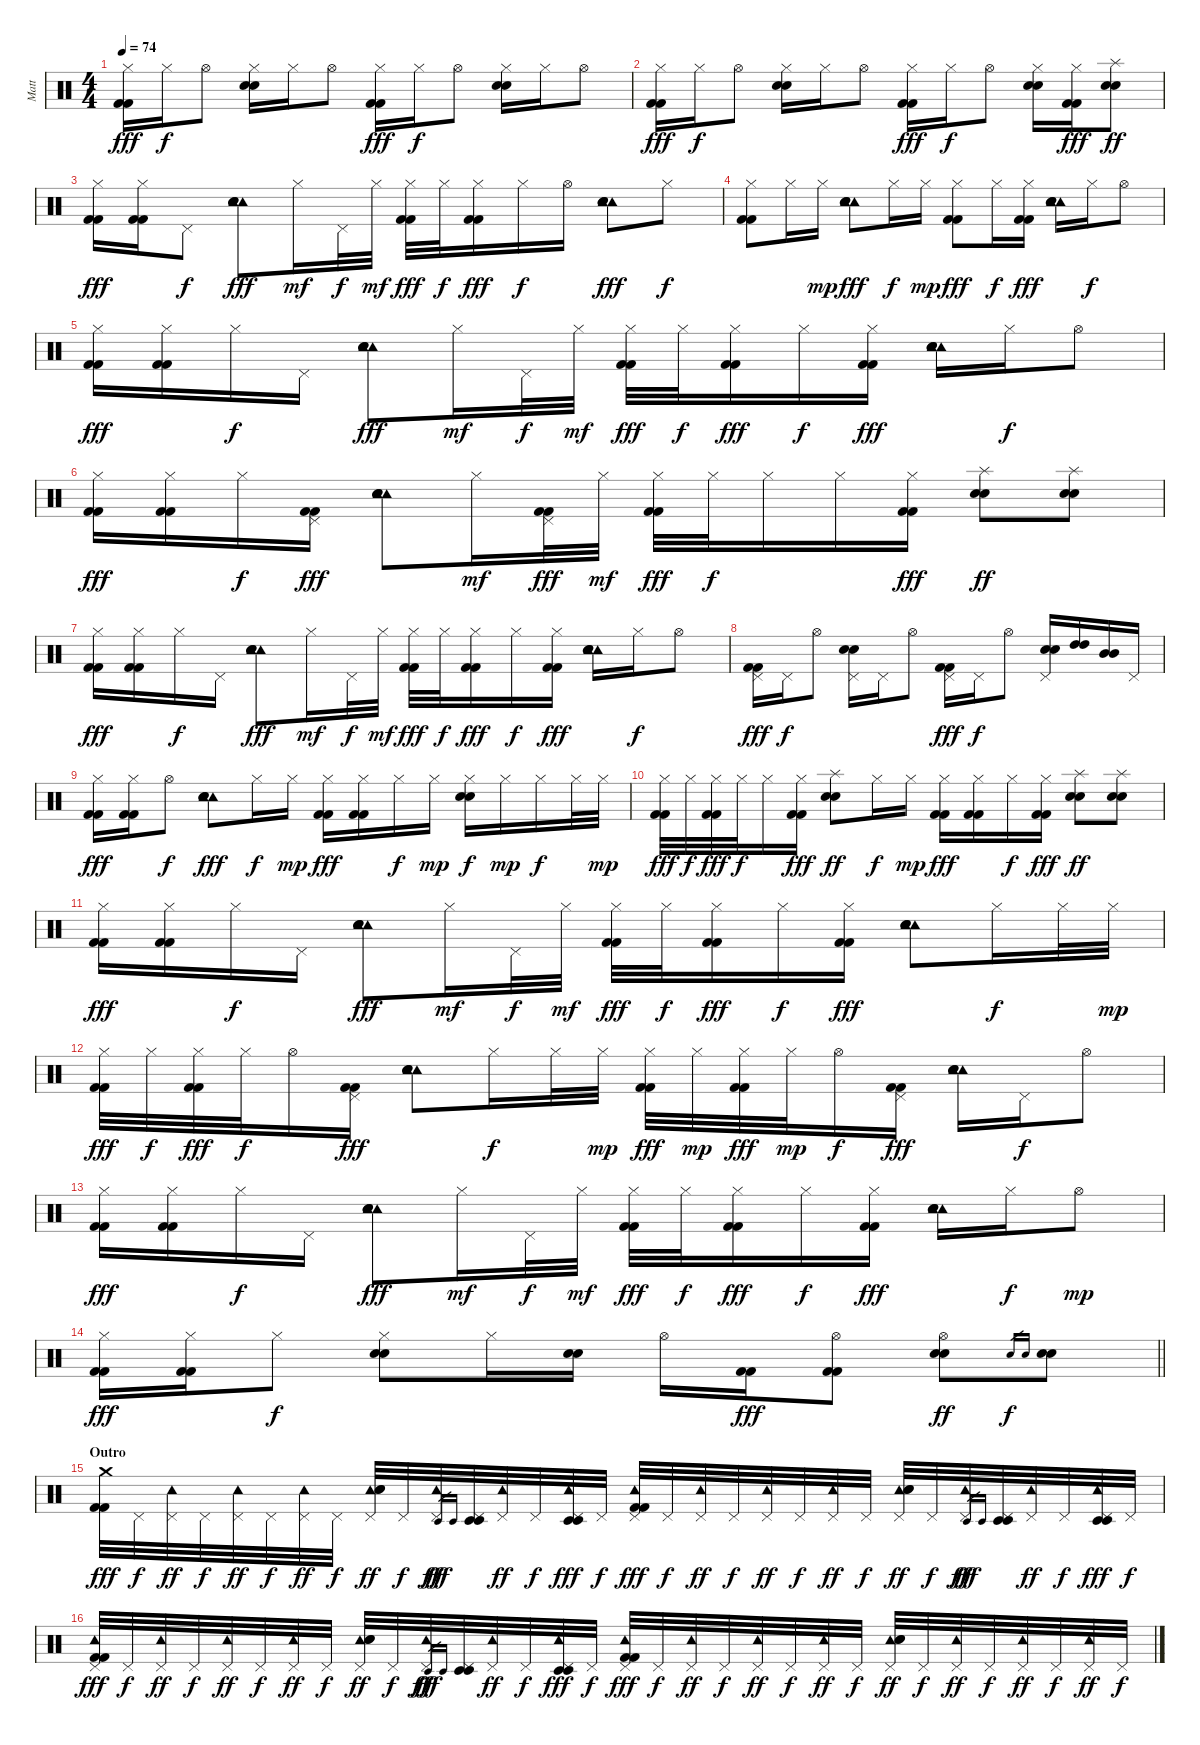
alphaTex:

\track ("Matt" "Matt") {instrument percussion}
\staff {score}
\articulation defaults
\ts (4 4)
\tempo 74
\clef neutral
\ks c
("Hi-Hat (closed)" "Kick (hit) 2" "Kick (hit) 2").16{dy fff} "Hi-Hat (closed)".16{dy f} "Hi-Hat (open)".8 ("Hi-Hat (closed)" "Electric Snare (hit)" "Electric Snare (hit)").16 "Hi-Hat (closed)".16 "Hi-Hat (open)".8 ("Hi-Hat (closed)" "Kick (hit) 2" "Kick (hit) 2").16{dy fff} "Hi-Hat (closed)".16{dy f} "Hi-Hat (open)".8 ("Hi-Hat (closed)" "Electric Snare (hit)" "Electric Snare (hit)").16 "Hi-Hat (closed)".16 "Hi-Hat (open)".8 |
("Hi-Hat (closed)" "Kick (hit) 2" "Kick (hit) 2").16{dy fff} "Hi-Hat (closed)".16{dy f} "Hi-Hat (open)".8 ("Hi-Hat (closed)" "Electric Snare (hit)" "Electric Snare (hit)").16 "Hi-Hat (closed)".16 "Hi-Hat (open)".8 ("Hi-Hat (closed)" "Kick (hit) 2" "Kick (hit) 2").16{dy fff} "Hi-Hat (closed)".16{dy f} "Hi-Hat (open)".8 ("Hi-Hat (closed)" "Electric Snare (hit)" "Electric Snare (hit)").16 ("Hi-Hat (closed)" "Kick (hit) 2" "Kick (hit) 2").16{dy fff} ("Splash (hit)" "Electric Snare (hit)" "Electric Snare (hit)").8{dy ff} |
("Hi-Hat (closed)" "Kick (hit) 2" "Kick (hit) 2").16{dy fff} ("Hi-Hat (closed)" "Kick (hit) 2" "Kick (hit) 2").16 "Pedal Hi-Hat (hit)".8{dy f} ("Tambourine (hit)" "Tambourine (hit)" "Electric Snare (hit)" "Electric Snare (hit)").8{dy fff} "Hi-Hat (closed)".16{dy mf} "Pedal Hi-Hat (hit)".32{dy f} "Hi-Hat (closed)".32{dy mf} ("Hi-Hat (closed)" "Kick (hit) 2" "Kick (hit) 2").32{dy fff} "Hi-Hat (closed)".32{dy f} ("Hi-Hat (closed)" "Kick (hit) 2" "Kick (hit) 2").16{dy fff} "Hi-Hat (closed)".16{dy f} "Hi-Hat (open)".16 ("Tambourine (hit)" "Tambourine (hit)" "Electric Snare (hit)" "Electric Snare (hit)").8{dy fff} "Hi-Hat (closed)".8{dy f} |
("Hi-Hat (closed)" "Kick (hit) 2" "Kick (hit) 2").8 "Hi-Hat (closed)".16 "Hi-Hat (closed)".16{dy mp} ("Tambourine (hit)" "Tambourine (hit)" "Electric Snare (hit)" "Electric Snare (hit)").8{dy fff} "Hi-Hat (closed)".16{dy f} "Hi-Hat (closed)".16{dy mp} ("Hi-Hat (closed)" "Kick (hit) 2" "Kick (hit) 2").8{dy fff} "Hi-Hat (closed)".16{dy f} ("Hi-Hat (closed)" "Kick (hit) 2" "Kick (hit) 2").16{dy fff} ("Tambourine (hit)" "Tambourine (hit)" "Electric Snare (hit)" "Electric Snare (hit)").16 "Hi-Hat (closed)".16{dy f} "Hi-Hat (open)".8 |
("Hi-Hat (closed)" "Kick (hit) 2" "Kick (hit) 2").16{dy fff} ("Hi-Hat (closed)" "Kick (hit) 2" "Kick (hit) 2").16 "Hi-Hat (closed)".16{dy f} "Pedal Hi-Hat (hit)".16 ("Tambourine (hit)" "Tambourine (hit)" "Electric Snare (hit)" "Electric Snare (hit)").8{dy fff} "Hi-Hat (closed)".16{dy mf} "Pedal Hi-Hat (hit)".32{dy f} "Hi-Hat (closed)".32{dy mf} ("Hi-Hat (closed)" "Kick (hit) 2" "Kick (hit) 2").32{dy fff} "Hi-Hat (closed)".32{dy f} ("Hi-Hat (closed)" "Kick (hit) 2" "Kick (hit) 2").16{dy fff} "Hi-Hat (closed)".16{dy f} ("Hi-Hat (closed)" "Kick (hit) 2" "Kick (hit) 2").16{dy fff} ("Tambourine (hit)" "Tambourine (hit)" "Electric Snare (hit)" "Electric Snare (hit)").16 "Hi-Hat (closed)".16{dy f} "Hi-Hat (open)".8 |
("Hi-Hat (closed)" "Kick (hit) 2" "Kick (hit) 2").16{dy fff} ("Hi-Hat (closed)" "Kick (hit) 2" "Kick (hit) 2").16 "Hi-Hat (closed)".16{dy f} ("Pedal Hi-Hat (hit)" "Kick (hit) 2" "Kick (hit) 2").16{dy fff} ("Tambourine (hit)" "Tambourine (hit)" "Electric Snare (hit)" "Electric Snare (hit)").8 "Hi-Hat (closed)".16{dy mf} ("Pedal Hi-Hat (hit)" "Kick (hit) 2" "Kick (hit) 2").32{dy fff} "Hi-Hat (closed)".32{dy mf} ("Hi-Hat (closed)" "Kick (hit) 2" "Kick (hit) 2").32{dy fff} "Hi-Hat (closed)".32{dy f} "Hi-Hat (closed)".16 "Hi-Hat (closed)".16 ("Hi-Hat (closed)" "Kick (hit) 2" "Kick (hit) 2").16{dy fff} ("Splash (hit)" "Electric Snare (hit)" "Electric Snare (hit)").8{dy ff} ("Splash (hit)" "Electric Snare (hit)" "Electric Snare (hit)").8 |
("Hi-Hat (closed)" "Kick (hit) 2" "Kick (hit) 2").16{dy fff} ("Hi-Hat (closed)" "Kick (hit) 2" "Kick (hit) 2").16 "Hi-Hat (closed)".16{dy f} "Pedal Hi-Hat (hit)".16 ("Tambourine (hit)" "Tambourine (hit)" "Electric Snare (hit)" "Electric Snare (hit)").8{dy fff} "Hi-Hat (closed)".16{dy mf} "Pedal Hi-Hat (hit)".32{dy f} "Hi-Hat (closed)".32{dy mf} ("Hi-Hat (closed)" "Kick (hit) 2" "Kick (hit) 2").32{dy fff} "Hi-Hat (closed)".32{dy f} ("Hi-Hat (closed)" "Kick (hit) 2" "Kick (hit) 2").16{dy fff} "Hi-Hat (closed)".16{dy f} ("Hi-Hat (closed)" "Kick (hit) 2" "Kick (hit) 2").16{dy fff} ("Tambourine (hit)" "Tambourine (hit)" "Electric Snare (hit)" "Electric Snare (hit)").16 "Hi-Hat (closed)".16{dy f} "Hi-Hat (open)".8 |
("Pedal Hi-Hat (hit)" "Kick (hit) 2" "Kick (hit) 2").16{dy fff} "Pedal Hi-Hat (hit)".16{dy f} "Hi-Hat (open)".8 ("Pedal Hi-Hat (hit)" "Electric Snare (hit)" "Electric Snare (hit)").16 "Pedal Hi-Hat (hit)".16 "Hi-Hat (open)".8 ("Pedal Hi-Hat (hit)" "Kick (hit) 2" "Kick (hit) 2").16{dy fff} "Pedal Hi-Hat (hit)".16{dy f} "Hi-Hat (open)".8 ("Pedal Hi-Hat (hit)" "Electric Snare (hit)" "Electric Snare (hit)").16 ("High Tom (hit)" "High Tom (hit)").16 ("Mid Tom (hit)" "Mid Tom (hit)").16 "Pedal Hi-Hat (hit)".16 |
("Hi-Hat (closed)" "Kick (hit) 2" "Kick (hit) 2").16{dy fff} ("Hi-Hat (closed)" "Kick (hit) 2" "Kick (hit) 2").16 "Hi-Hat (open)".8{dy f} ("Tambourine (hit)" "Tambourine (hit)" "Electric Snare (hit)" "Electric Snare (hit)").8{dy fff} "Hi-Hat (closed)".16{dy f} "Hi-Hat (closed)".16{dy mp} ("Hi-Hat (closed)" "Kick (hit) 2" "Kick (hit) 2").16{dy fff} ("Hi-Hat (closed)" "Kick (hit) 2" "Kick (hit) 2").16 "Hi-Hat (closed)".16{dy f} "Hi-Hat (closed)".16{dy mp} ("Hi-Hat (closed)" "Electric Snare (hit)" "Electric Snare (hit)").16{dy f} "Hi-Hat (closed)".16{dy mp} "Hi-Hat (closed)".16{dy f} "Hi-Hat (closed)".32 "Hi-Hat (closed)".32{dy mp} |
("Hi-Hat (closed)" "Kick (hit) 2" "Kick (hit) 2").32{dy fff} "Hi-Hat (closed)".32{dy f} ("Hi-Hat (closed)" "Kick (hit) 2" "Kick (hit) 2").32{dy fff} "Hi-Hat (closed)".32{dy f} "Hi-Hat (closed)".16 ("Hi-Hat (closed)" "Kick (hit) 2" "Kick (hit) 2").16{dy fff} ("Splash (hit)" "Electric Snare (hit)" "Electric Snare (hit)").8{dy ff} "Hi-Hat (closed)".16{dy f} "Hi-Hat (closed)".16{dy mp} ("Hi-Hat (closed)" "Kick (hit) 2" "Kick (hit) 2").16{dy fff} ("Hi-Hat (closed)" "Kick (hit) 2" "Kick (hit) 2").16 "Hi-Hat (closed)".16{dy f} ("Hi-Hat (closed)" "Kick (hit) 2" "Kick (hit) 2").16{dy fff} ("Splash (hit)" "Electric Snare (hit)" "Electric Snare (hit)").8{dy ff} ("Splash (hit)" "Electric Snare (hit)" "Electric Snare (hit)").8 |
("Hi-Hat (closed)" "Kick (hit) 2" "Kick (hit) 2").16{dy fff} ("Hi-Hat (closed)" "Kick (hit) 2" "Kick (hit) 2").16 "Hi-Hat (closed)".16{dy f} "Pedal Hi-Hat (hit)".16 ("Tambourine (hit)" "Tambourine (hit)" "Electric Snare (hit)" "Electric Snare (hit)").8{dy fff} "Hi-Hat (closed)".16{dy mf} "Pedal Hi-Hat (hit)".32{dy f} "Hi-Hat (closed)".32{dy mf} ("Hi-Hat (closed)" "Kick (hit) 2" "Kick (hit) 2").32{dy fff} "Hi-Hat (closed)".32{dy f} ("Hi-Hat (closed)" "Kick (hit) 2" "Kick (hit) 2").16{dy fff} "Hi-Hat (closed)".16{dy f} ("Hi-Hat (closed)" "Kick (hit) 2" "Kick (hit) 2").16{dy fff} ("Tambourine (hit)" "Tambourine (hit)" "Electric Snare (hit)" "Electric Snare (hit)").8 "Hi-Hat (closed)".16{dy f} "Hi-Hat (closed)".32 "Hi-Hat (closed)".32{dy mp} |
("Hi-Hat (closed)" "Kick (hit) 2" "Kick (hit) 2").32{dy fff} "Hi-Hat (closed)".32{dy f} ("Hi-Hat (closed)" "Kick (hit) 2" "Kick (hit) 2").32{dy fff} "Hi-Hat (closed)".32{dy f} "Hi-Hat (open)".16 ("Pedal Hi-Hat (hit)" "Kick (hit) 2" "Kick (hit) 2").16{dy fff} ("Tambourine (hit)" "Tambourine (hit)" "Electric Snare (hit)" "Electric Snare (hit)").8 "Hi-Hat (closed)".16{dy f} "Hi-Hat (closed)".32 "Hi-Hat (closed)".32{dy mp} ("Hi-Hat (closed)" "Kick (hit) 2" "Kick (hit) 2").32{dy fff} "Hi-Hat (closed)".32{dy mp} ("Hi-Hat (closed)" "Kick (hit) 2" "Kick (hit) 2").32{dy fff} "Hi-Hat (closed)".32{dy mp} "Hi-Hat (open)".16{dy f} ("Pedal Hi-Hat (hit)" "Kick (hit) 2" "Kick (hit) 2").16{dy fff} ("Tambourine (hit)" "Tambourine (hit)" "Electric Snare (hit)" "Electric Snare (hit)").16 "Pedal Hi-Hat (hit)".16{dy f} "Hi-Hat (open)".8 |
("Hi-Hat (closed)" "Kick (hit) 2" "Kick (hit) 2").16{dy fff} ("Hi-Hat (closed)" "Kick (hit) 2" "Kick (hit) 2").16 "Hi-Hat (closed)".16{dy f} "Pedal Hi-Hat (hit)".16 ("Tambourine (hit)" "Tambourine (hit)" "Electric Snare (hit)" "Electric Snare (hit)").8{dy fff} "Hi-Hat (closed)".16{dy mf} "Pedal Hi-Hat (hit)".32{dy f} "Hi-Hat (closed)".32{dy mf} ("Hi-Hat (closed)" "Kick (hit) 2" "Kick (hit) 2").32{dy fff} "Hi-Hat (closed)".32{dy f} ("Hi-Hat (closed)" "Kick (hit) 2" "Kick (hit) 2").16{dy fff} "Hi-Hat (closed)".16{dy f} ("Hi-Hat (closed)" "Kick (hit) 2" "Kick (hit) 2").16{dy fff} ("Tambourine (hit)" "Tambourine (hit)" "Electric Snare (hit)" "Electric Snare (hit)").16 "Hi-Hat (closed)".16{dy f} "Hi-Hat (open)".8{dy mp} |
\barLineRight lightlight
("Hi-Hat (closed)" "Kick (hit) 2" "Kick (hit) 2").16{dy fff} ("Hi-Hat (closed)" "Kick (hit) 2" "Kick (hit) 2").16 "Hi-Hat (closed)".8{dy f} ("Hi-Hat (closed)" "Electric Snare (hit)" "Electric Snare (hit)").8 "Hi-Hat (closed)".16 ("Electric Snare (hit)" "Electric Snare (hit)").16 "Hi-Hat (open)".16 ("Kick (hit) 2" "Kick (hit) 2").16{dy fff} ("Hi-Hat (open)" "Kick (hit) 2" "Kick (hit) 2").8 ("Hi-Hat (open)" "Electric Snare (hit)" "Electric Snare (hit)").8{dy ff} "Electric Snare (hit)".16{gr dy f} "Electric Snare (hit)".16{gr} ("Electric Snare (hit)" "Electric Snare (hit)").8 |
\section ("" "Outro")
("Crash medium (hit)" "Kick (hit) 2" "Kick (hit) 2").32{dy fff} "Pedal Hi-Hat (hit)".32{dy f} ("Tambourine (hit)" "Pedal Hi-Hat (hit)").32{dy ff} "Pedal Hi-Hat (hit)".32{dy f} ("Tambourine (hit)" "Pedal Hi-Hat (hit)").32{dy ff} "Pedal Hi-Hat (hit)".32{dy f} ("Tambourine (hit)" "Pedal Hi-Hat (hit)").32{dy ff} "Pedal Hi-Hat (hit)".32{dy f} ("Tambourine (hit)" "Pedal Hi-Hat (hit)" "Electric Snare (hit)" "Electric Snare (hit)").32{dy ff} "Pedal Hi-Hat (hit)".32{dy f} ("Tambourine (hit)" "Pedal Hi-Hat (hit)").32{dy ff} "Timbale low (hit)".16{gr dy fff} "Timbale low (hit)".16{gr} ("Pedal Hi-Hat (hit)" "Timbale low (hit)" "Timbale low (hit)").32 ("Tambourine (hit)" "Pedal Hi-Hat (hit)").32{dy ff} "Pedal Hi-Hat (hit)".32{dy f} ("Tambourine (hit)" "Pedal Hi-Hat (hit)" "Timbale low (hit)" "Timbale low (hit)").32{dy fff} "Pedal Hi-Hat (hit)".32{dy f} ("Tambourine (hit)" "Pedal Hi-Hat (hit)" "Kick (hit) 2" "Kick (hit) 2").32{dy fff} "Pedal Hi-Hat (hit)".32{dy f} ("Tambourine (hit)" "Pedal Hi-Hat (hit)").32{dy ff} "Pedal Hi-Hat (hit)".32{dy f} ("Tambourine (hit)" "Pedal Hi-Hat (hit)").32{dy ff} "Pedal Hi-Hat (hit)".32{dy f} ("Tambourine (hit)" "Pedal Hi-Hat (hit)").32{dy ff} "Pedal Hi-Hat (hit)".32{dy f} ("Tambourine (hit)" "Pedal Hi-Hat (hit)" "Electric Snare (hit)" "Electric Snare (hit)").32{dy ff} "Pedal Hi-Hat (hit)".32{dy f} ("Tambourine (hit)" "Pedal Hi-Hat (hit)").32{dy ff} "Timbale low (hit)".16{gr dy fff} "Timbale low (hit)".16{gr} ("Pedal Hi-Hat (hit)" "Timbale low (hit)" "Timbale low (hit)").32 ("Tambourine (hit)" "Pedal Hi-Hat (hit)").32{dy ff} "Pedal Hi-Hat (hit)".32{dy f} ("Tambourine (hit)" "Pedal Hi-Hat (hit)" "Timbale low (hit)" "Timbale low (hit)").32{dy fff} "Pedal Hi-Hat (hit)".32{dy f} |
("Tambourine (hit)" "Pedal Hi-Hat (hit)" "Kick (hit) 2" "Kick (hit) 2").32{dy fff} "Pedal Hi-Hat (hit)".32{dy f} ("Tambourine (hit)" "Pedal Hi-Hat (hit)").32{dy ff} "Pedal Hi-Hat (hit)".32{dy f} ("Tambourine (hit)" "Pedal Hi-Hat (hit)").32{dy ff} "Pedal Hi-Hat (hit)".32{dy f} ("Tambourine (hit)" "Pedal Hi-Hat (hit)").32{dy ff} "Pedal Hi-Hat (hit)".32{dy f} ("Tambourine (hit)" "Pedal Hi-Hat (hit)" "Electric Snare (hit)" "Electric Snare (hit)").32{dy ff} "Pedal Hi-Hat (hit)".32{dy f} ("Tambourine (hit)" "Pedal Hi-Hat (hit)").32{dy ff} "Timbale low (hit)".16{gr dy fff} "Timbale low (hit)".16{gr} ("Pedal Hi-Hat (hit)" "Timbale low (hit)" "Timbale low (hit)").32 ("Tambourine (hit)" "Pedal Hi-Hat (hit)").32{dy ff} "Pedal Hi-Hat (hit)".32{dy f} ("Tambourine (hit)" "Pedal Hi-Hat (hit)" "Timbale low (hit)" "Timbale low (hit)").32{dy fff} "Pedal Hi-Hat (hit)".32{dy f} ("Tambourine (hit)" "Pedal Hi-Hat (hit)" "Kick (hit) 2" "Kick (hit) 2").32{dy fff} "Pedal Hi-Hat (hit)".32{dy f} ("Tambourine (hit)" "Pedal Hi-Hat (hit)").32{dy ff} "Pedal Hi-Hat (hit)".32{dy f} ("Tambourine (hit)" "Pedal Hi-Hat (hit)").32{dy ff} "Pedal Hi-Hat (hit)".32{dy f} ("Tambourine (hit)" "Pedal Hi-Hat (hit)").32{dy ff} "Pedal Hi-Hat (hit)".32{dy f} ("Tambourine (hit)" "Pedal Hi-Hat (hit)" "Electric Snare (hit)" "Electric Snare (hit)").32{dy ff} "Pedal Hi-Hat (hit)".32{dy f} ("Tambourine (hit)" "Pedal Hi-Hat (hit)").32{dy ff} "Pedal Hi-Hat (hit)".32{dy f} ("Tambourine (hit)" "Pedal Hi-Hat (hit)").32{dy ff} "Pedal Hi-Hat (hit)".32{dy f} ("Tambourine (hit)" "Pedal Hi-Hat (hit)").32{dy ff} "Pedal Hi-Hat (hit)".32{dy f}
